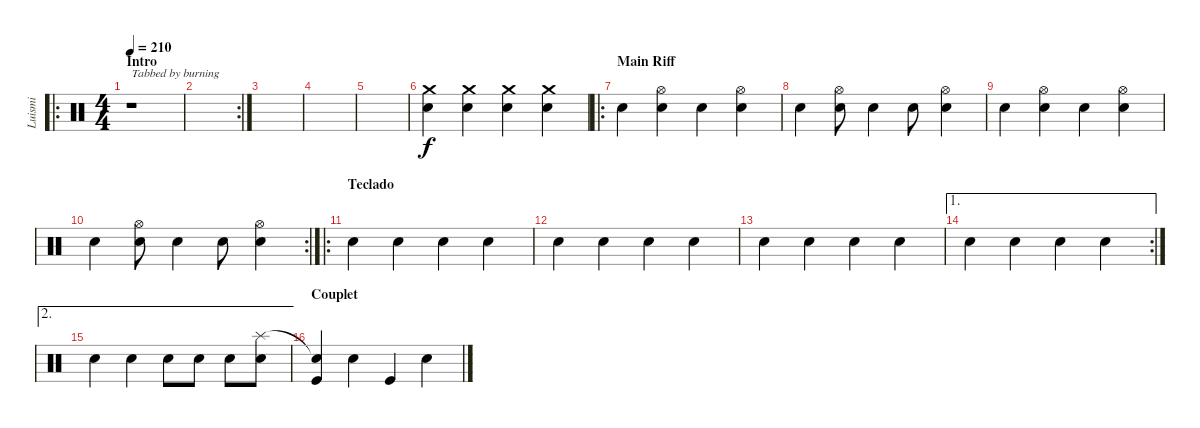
\track ("Luismi" "Luismi") {instrument percussion}
\staff {score}
\articulation defaults
\ro
\ts (4 4)
\section ("" "Intro")
\tempo 210
\clef neutral
\ks c
r.1{txt "Tabbed by burning" dy f} |
\rc 2
|
|
|
|
("Crash medium (hit)" "Snare (hit) 2").4 ("Crash medium (hit)" "Snare (hit) 2").4 ("Crash medium (hit)" "Snare (hit) 2").4 ("Crash medium (hit)" "Snare (hit) 2").4 |
\ro
\section ("" "Main Riff")
"Snare (hit) 2".4 ("Electric Snare (hit)" "Hi-Hat (open)").4 "Snare (hit) 2".4 ("Electric Snare (hit)" "Hi-Hat (open)").4 |
"Snare (hit) 2".4 ("Electric Snare (hit)" "Hi-Hat (open)").8 "Snare (hit) 2".4 "Snare (hit) 2".8 ("Electric Snare (hit)" "Hi-Hat (open)").4 |
"Snare (hit) 2".4 ("Electric Snare (hit)" "Hi-Hat (open)").4 "Snare (hit) 2".4 ("Electric Snare (hit)" "Hi-Hat (open)").4 |
\rc 2 "Snare (hit) 2".4
("Electric Snare (hit)" "Hi-Hat (open)").8 "Snare (hit) 2".4 "Snare (hit) 2".8 ("Electric Snare (hit)" "Hi-Hat (open)").4 |
\ro
\section ("" "Teclado")
"Snare (hit) 2".4 "Electric Snare (hit)".4 "Snare (hit) 2".4 "Electric Snare (hit)".4 |
"Snare (hit) 2".4 "Electric Snare (hit)".4 "Snare (hit) 2".4 "Electric Snare (hit)".4 |
"Snare (hit) 2".4 "Electric Snare (hit)".4 "Snare (hit) 2".4 "Electric Snare (hit)".4 |
\ae 1
\rc 2 "Snare (hit) 2".4 "Electric Snare (hit)".4 "Snare (hit) 2".4 "Electric Snare (hit)".4
|
\ae 2 "Electric Snare (hit)".4 "Electric Snare (hit)".4 "Electric Snare (hit)".8 "Snare (hit) 2".8 "Electric Snare (hit)".8
("Snare (hit) 2" "Splash (hit)").8 |
\section ("" "Couplet")
("Kick (hit)" "Snare (hit)"{t}).4 "Electric Snare (hit)".4 "Kick (hit)".4 "Electric Snare (hit)".4
